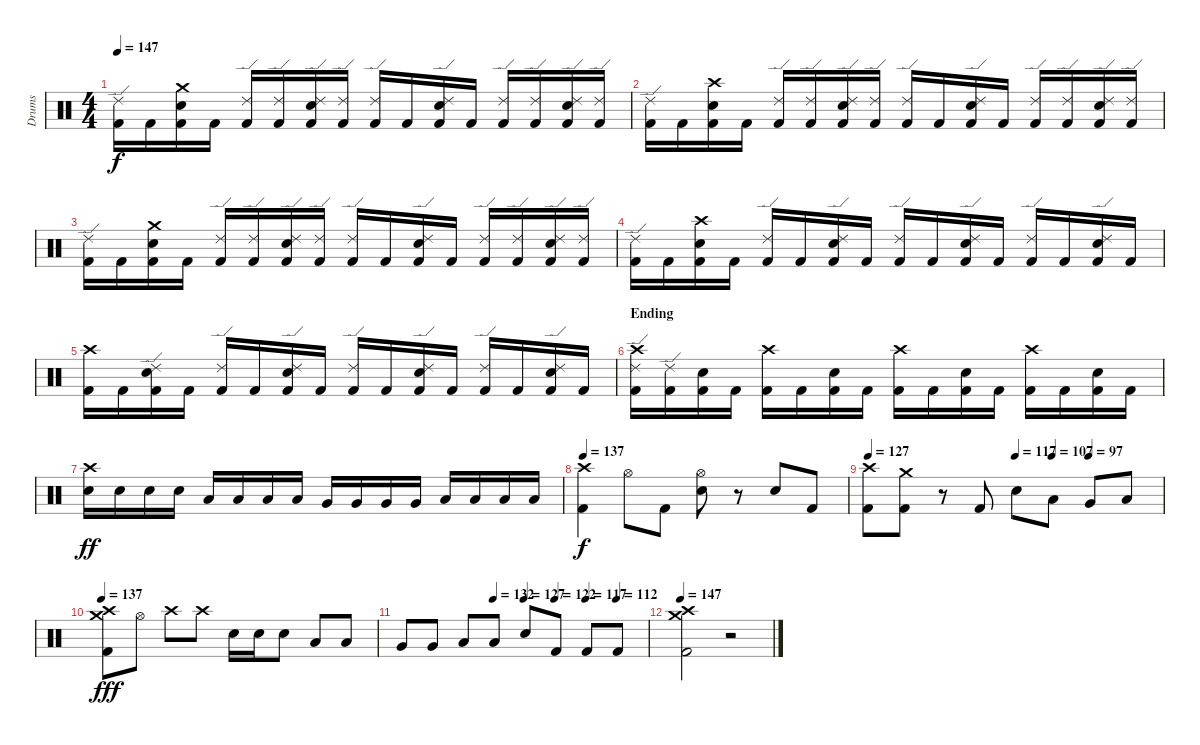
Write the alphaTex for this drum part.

\track ("Drums" "Drums") {instrument percussion}
\staff {score}
\articulation defaults
\ts (4 4)
\tempo 147
\clef neutral
\ks c
("Kick (hit) 2" "Ride (edge) 2").16{dy f} "Kick (hit) 2".16 ("Kick (hit) 2" "Electric Snare (hit)" "Crash medium (hit)").16 "Kick (hit) 2".16 ("Kick (hit) 2" "Ride (edge) 2").16 ("Kick (hit) 2" "Ride (edge) 2").16 ("Kick (hit) 2" "Electric Snare (hit)" "Ride (edge) 2").16 ("Kick (hit) 2" "Ride (edge) 2").16 ("Kick (hit) 2" "Ride (edge) 2").16 "Kick (hit) 2".16 ("Kick (hit) 2" "Electric Snare (hit)" "Ride (edge) 2").16 "Kick (hit) 2".16 ("Kick (hit) 2" "Ride (edge) 2").16 ("Kick (hit) 2" "Ride (edge) 2").16 ("Kick (hit) 2" "Electric Snare (hit)" "Ride (edge) 2").16 ("Kick (hit) 2" "Ride (edge) 2").16 |
("Kick (hit) 2" "Ride (edge) 2").16 "Kick (hit) 2".16 ("Kick (hit) 2" "Electric Snare (hit)" "Crash high (hit)").16 "Kick (hit) 2".16 ("Kick (hit) 2" "Ride (edge) 2").16 ("Kick (hit) 2" "Ride (edge) 2").16 ("Kick (hit) 2" "Electric Snare (hit)" "Ride (edge) 2").16 ("Kick (hit) 2" "Ride (edge) 2").16 ("Kick (hit) 2" "Ride (edge) 2").16 "Kick (hit) 2".16 ("Kick (hit) 2" "Electric Snare (hit)" "Ride (edge) 2").16 "Kick (hit) 2".16 ("Kick (hit) 2" "Ride (edge) 2").16 ("Kick (hit) 2" "Ride (edge) 2").16 ("Kick (hit) 2" "Electric Snare (hit)" "Ride (edge) 2").16 ("Kick (hit) 2" "Ride (edge) 2").16 |
("Kick (hit) 2" "Ride (edge) 2").16 "Kick (hit) 2".16 ("Kick (hit) 2" "Electric Snare (hit)" "Crash medium (hit)").16 "Kick (hit) 2".16 ("Kick (hit) 2" "Ride (edge) 2").16 ("Kick (hit) 2" "Ride (edge) 2").16 ("Kick (hit) 2" "Electric Snare (hit)" "Ride (edge) 2").16 ("Kick (hit) 2" "Ride (edge) 2").16 ("Kick (hit) 2" "Ride (edge) 2").16 "Kick (hit) 2".16 ("Kick (hit) 2" "Electric Snare (hit)" "Ride (edge) 2").16 "Kick (hit) 2".16 ("Kick (hit) 2" "Ride (edge) 2").16 ("Kick (hit) 2" "Ride (edge) 2").16 ("Kick (hit) 2" "Electric Snare (hit)" "Ride (edge) 2").16 ("Kick (hit) 2" "Ride (edge) 2").16 |
("Kick (hit) 2" "Ride (edge) 2").16 "Kick (hit) 2".16 ("Kick (hit) 2" "Electric Snare (hit)" "Crash high (hit)").16 "Kick (hit) 2".16 ("Kick (hit) 2" "Ride (edge) 2").16 "Kick (hit) 2".16 ("Kick (hit) 2" "Electric Snare (hit)" "Ride (edge) 2").16 "Kick (hit) 2".16 ("Kick (hit) 2" "Ride (edge) 2").16 "Kick (hit) 2".16 ("Kick (hit) 2" "Electric Snare (hit)" "Ride (edge) 2").16 "Kick (hit) 2".16 ("Kick (hit) 2" "Ride (edge) 2").16 "Kick (hit) 2".16 ("Kick (hit) 2" "Electric Snare (hit)" "Ride (edge) 2").16 "Kick (hit) 2".16 |
("Kick (hit) 2" "Crash high (hit)").16 "Kick (hit) 2".16 ("Kick (hit) 2" "Electric Snare (hit)" "Ride (edge) 2").16 "Kick (hit) 2".16 ("Kick (hit) 2" "Ride (edge) 2").16 "Kick (hit) 2".16 ("Kick (hit) 2" "Electric Snare (hit)" "Ride (edge) 2").16 "Kick (hit) 2".16 ("Kick (hit) 2" "Ride (edge) 2").16 "Kick (hit) 2".16 ("Kick (hit) 2" "Electric Snare (hit)" "Ride (edge) 2").16 "Kick (hit) 2".16 ("Kick (hit) 2" "Ride (edge) 2").16 "Kick (hit) 2".16 ("Kick (hit) 2" "Electric Snare (hit)" "Ride (edge) 2").16 "Kick (hit) 2".16 |
\section ("" "Ending")
("Kick (hit) 2" "Ride (edge) 2" "Crash high (hit)").16 ("Kick (hit) 2" "Ride (edge) 2").16 ("Kick (hit) 2" "Electric Snare (hit)").16 "Kick (hit) 2".16 ("Kick (hit) 2" "Crash high (hit)").16 "Kick (hit) 2".16 ("Kick (hit) 2" "Electric Snare (hit)").16 "Kick (hit) 2".16 ("Kick (hit) 2" "Crash high (hit)").16 "Kick (hit) 2".16 ("Kick (hit) 2" "Electric Snare (hit)").16 "Kick (hit) 2".16 ("Kick (hit) 2" "Crash high (hit)").16 "Kick (hit) 2".16 ("Kick (hit) 2" "Electric Snare (hit)").16 "Kick (hit) 2".16 |
("Electric Snare (hit)" "Crash high (hit)").16{dy ff} "Electric Snare (hit)".16 "Electric Snare (hit)".16 "Electric Snare (hit)".16 "Low Tom (hit)".16 "Low Tom (hit)".16 "Low Tom (hit)".16 "Low Tom (hit)".16 "Very Low Tom (hit)".16 "Very Low Tom (hit)".16 "Very Low Tom (hit)".16 "Very Low Tom (hit)".16 "Low Floor Tom (hit)".16 "Low Floor Tom (hit)".16 "Low Floor Tom (hit)".16 "Low Floor Tom (hit)".16 |
\tempo 137
("Kick (hit) 2" "Crash high (hit)").4{dy f} "Hi-Hat (open)".8 "Kick (hit) 2".8 ("Electric Snare (hit)" "Hi-Hat (open)").8 r.8 "Electric Snare (hit)".8 "Kick (hit) 2".8 |
\tempo 127
\tempo (117 0.5)
\tempo (107 0.625)
\tempo (97 0.75)
("Kick (hit) 2" "Crash high (hit)").8 ("Kick (hit) 2" "Crash medium (hit)").8 r.8 "Kick (hit) 2".8 "Electric Snare (hit)".8 "Low Tom (hit)".8 "Very Low Tom (hit)".8 "Low Floor Tom (hit)".8 |
\tempo 137
("Kick (hit) 2" "Crash medium (hit)" "Crash high (hit)").8{dy fff} "Hi-Hat (open)".8 "Crash high (hit)".8 "Crash high (hit)".8 "Electric Snare (hit)".16 "Electric Snare (hit)".16 "Electric Snare (hit)".8 "Low Tom (hit)".8 "Low Tom (hit)".8 |
\tempo (132 0.375)
\tempo (127 0.5)
\tempo (122 0.625)
\tempo (117 0.75)
\tempo (112 0.875)
"Very Low Tom (hit)".8 "Very Low Tom (hit)".8 "Low Floor Tom (hit)".8 "Low Floor Tom (hit)".8 "Electric Snare (hit)".8 "Kick (hit) 2".8 "Kick (hit) 2".8 "Kick (hit) 2".8 |
\tempo 147
("Kick (hit) 2" "Crash medium (hit)" "Crash high (hit)").2 r.2
